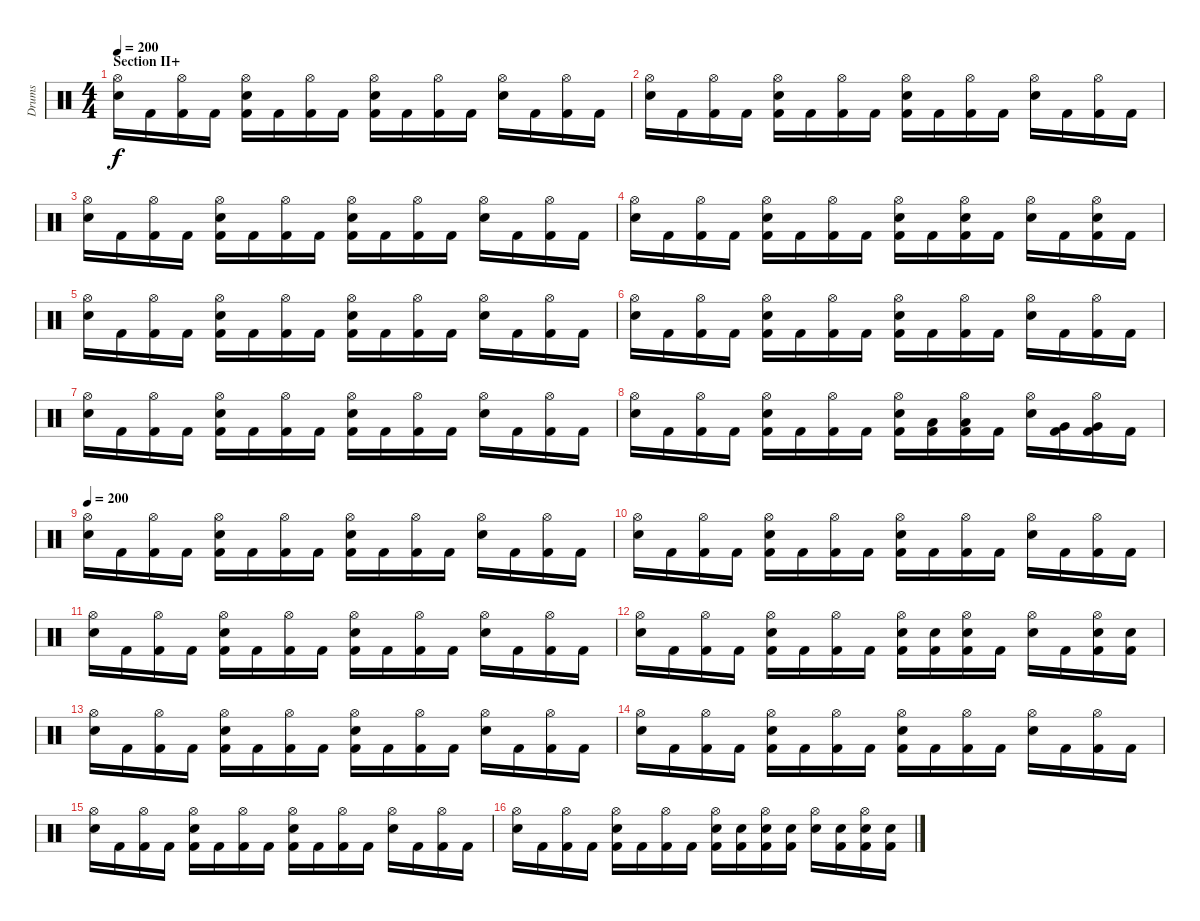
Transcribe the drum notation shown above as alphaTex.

\track ("Drums" "Drums") {instrument percussion}
\staff {score}
\articulation defaults
\ts (4 4)
\section ("" "Section II+")
\tempo 200
\clef neutral
\ks c
("Hi-Hat (open)" "Snare (hit) 2").16{dy f} "Kick (hit) 2".16 ("Hi-Hat (open)" "Kick (hit) 2").16 "Kick (hit) 2".16 ("Hi-Hat (open)" "Snare (hit) 2" "Kick (hit) 2").16 "Kick (hit) 2".16 ("Hi-Hat (open)" "Kick (hit) 2").16 "Kick (hit) 2".16 ("Hi-Hat (open)" "Snare (hit) 2" "Kick (hit) 2").16 "Kick (hit) 2".16 ("Hi-Hat (open)" "Kick (hit) 2").16 "Kick (hit) 2".16 ("Hi-Hat (open)" "Snare (hit) 2").16 "Kick (hit) 2".16 ("Hi-Hat (open)" "Kick (hit) 2").16 "Kick (hit) 2".16 |
("Hi-Hat (open)" "Snare (hit) 2").16 "Kick (hit) 2".16 ("Hi-Hat (open)" "Kick (hit) 2").16 "Kick (hit) 2".16 ("Hi-Hat (open)" "Snare (hit) 2" "Kick (hit) 2").16 "Kick (hit) 2".16 ("Hi-Hat (open)" "Kick (hit) 2").16 "Kick (hit) 2".16 ("Hi-Hat (open)" "Snare (hit) 2" "Kick (hit) 2").16 "Kick (hit) 2".16 ("Hi-Hat (open)" "Kick (hit) 2").16 "Kick (hit) 2".16 ("Hi-Hat (open)" "Snare (hit) 2").16 "Kick (hit) 2".16 ("Hi-Hat (open)" "Kick (hit) 2").16 "Kick (hit) 2".16 |
("Hi-Hat (open)" "Snare (hit) 2").16 "Kick (hit) 2".16 ("Hi-Hat (open)" "Kick (hit) 2").16 "Kick (hit) 2".16 ("Hi-Hat (open)" "Snare (hit) 2" "Kick (hit) 2").16 "Kick (hit) 2".16 ("Hi-Hat (open)" "Kick (hit) 2").16 "Kick (hit) 2".16 ("Hi-Hat (open)" "Snare (hit) 2" "Kick (hit) 2").16 "Kick (hit) 2".16 ("Hi-Hat (open)" "Kick (hit) 2").16 "Kick (hit) 2".16 ("Hi-Hat (open)" "Snare (hit) 2").16 "Kick (hit) 2".16 ("Hi-Hat (open)" "Kick (hit) 2").16 "Kick (hit) 2".16 |
("Hi-Hat (open)" "Snare (hit) 2").16 "Kick (hit) 2".16 ("Hi-Hat (open)" "Kick (hit) 2").16 "Kick (hit) 2".16 ("Hi-Hat (open)" "Snare (hit) 2" "Kick (hit) 2").16 "Kick (hit) 2".16 ("Hi-Hat (open)" "Kick (hit) 2").16 "Kick (hit) 2".16 ("Hi-Hat (open)" "Snare (hit) 2" "Kick (hit) 2").16 "Kick (hit) 2".16 ("Hi-Hat (open)" "Snare (hit) 2" "Kick (hit) 2").16 "Kick (hit) 2".16 ("Hi-Hat (open)" "Snare (hit) 2").16 "Kick (hit) 2".16 ("Hi-Hat (open)" "Snare (hit) 2" "Kick (hit) 2").16 "Kick (hit) 2".16 |
("Hi-Hat (open)" "Snare (hit) 2").16 "Kick (hit) 2".16 ("Hi-Hat (open)" "Kick (hit) 2").16 "Kick (hit) 2".16 ("Hi-Hat (open)" "Snare (hit) 2" "Kick (hit) 2").16 "Kick (hit) 2".16 ("Hi-Hat (open)" "Kick (hit) 2").16 "Kick (hit) 2".16 ("Hi-Hat (open)" "Snare (hit) 2" "Kick (hit) 2").16 "Kick (hit) 2".16 ("Hi-Hat (open)" "Kick (hit) 2").16 "Kick (hit) 2".16 ("Hi-Hat (open)" "Snare (hit) 2").16 "Kick (hit) 2".16 ("Hi-Hat (open)" "Kick (hit) 2").16 "Kick (hit) 2".16 |
("Hi-Hat (open)" "Snare (hit) 2").16 "Kick (hit) 2".16 ("Hi-Hat (open)" "Kick (hit) 2").16 "Kick (hit) 2".16 ("Hi-Hat (open)" "Snare (hit) 2" "Kick (hit) 2").16 "Kick (hit) 2".16 ("Hi-Hat (open)" "Kick (hit) 2").16 "Kick (hit) 2".16 ("Hi-Hat (open)" "Snare (hit) 2" "Kick (hit) 2").16 "Kick (hit) 2".16 ("Hi-Hat (open)" "Kick (hit) 2").16 "Kick (hit) 2".16 ("Hi-Hat (open)" "Snare (hit) 2").16 "Kick (hit) 2".16 ("Hi-Hat (open)" "Kick (hit) 2").16 "Kick (hit) 2".16 |
("Hi-Hat (open)" "Snare (hit) 2").16 "Kick (hit) 2".16 ("Hi-Hat (open)" "Kick (hit) 2").16 "Kick (hit) 2".16 ("Hi-Hat (open)" "Snare (hit) 2" "Kick (hit) 2").16 "Kick (hit) 2".16 ("Hi-Hat (open)" "Kick (hit) 2").16 "Kick (hit) 2".16 ("Hi-Hat (open)" "Snare (hit) 2" "Kick (hit) 2").16 "Kick (hit) 2".16 ("Hi-Hat (open)" "Kick (hit) 2").16 "Kick (hit) 2".16 ("Hi-Hat (open)" "Snare (hit) 2").16 "Kick (hit) 2".16 ("Hi-Hat (open)" "Kick (hit) 2").16 "Kick (hit) 2".16 |
("Hi-Hat (open)" "Snare (hit) 2").16 "Kick (hit) 2".16 ("Hi-Hat (open)" "Kick (hit) 2").16 "Kick (hit) 2".16 ("Hi-Hat (open)" "Snare (hit) 2" "Kick (hit) 2").16 "Kick (hit) 2".16 ("Hi-Hat (open)" "Kick (hit) 2").16 "Kick (hit) 2".16 ("Hi-Hat (open)" "Snare (hit) 2" "Kick (hit) 2").16 ("Low Tom (hit)" "Kick (hit) 2").16 ("Hi-Hat (open)" "Low Tom (hit)" "Kick (hit) 2").16 "Kick (hit) 2".16 ("Hi-Hat (open)" "Snare (hit) 2").16 ("Very Low Tom (hit)" "Kick (hit) 2").16 ("Hi-Hat (open)" "Very Low Tom (hit)" "Kick (hit) 2").16 "Kick (hit) 2".16 |
\tempo 200
("Hi-Hat (open)" "Snare (hit) 2").16 "Kick (hit) 2".16 ("Hi-Hat (open)" "Kick (hit) 2").16 "Kick (hit) 2".16 ("Hi-Hat (open)" "Snare (hit) 2" "Kick (hit) 2").16 "Kick (hit) 2".16 ("Hi-Hat (open)" "Kick (hit) 2").16 "Kick (hit) 2".16 ("Hi-Hat (open)" "Snare (hit) 2" "Kick (hit) 2").16 "Kick (hit) 2".16 ("Hi-Hat (open)" "Kick (hit) 2").16 "Kick (hit) 2".16 ("Hi-Hat (open)" "Snare (hit) 2").16 "Kick (hit) 2".16 ("Hi-Hat (open)" "Kick (hit) 2").16 "Kick (hit) 2".16 |
("Hi-Hat (open)" "Snare (hit) 2").16 "Kick (hit) 2".16 ("Hi-Hat (open)" "Kick (hit) 2").16 "Kick (hit) 2".16 ("Hi-Hat (open)" "Snare (hit) 2" "Kick (hit) 2").16 "Kick (hit) 2".16 ("Hi-Hat (open)" "Kick (hit) 2").16 "Kick (hit) 2".16 ("Hi-Hat (open)" "Snare (hit) 2" "Kick (hit) 2").16 "Kick (hit) 2".16 ("Hi-Hat (open)" "Kick (hit) 2").16 "Kick (hit) 2".16 ("Hi-Hat (open)" "Snare (hit) 2").16 "Kick (hit) 2".16 ("Hi-Hat (open)" "Kick (hit) 2").16 "Kick (hit) 2".16 |
("Hi-Hat (open)" "Snare (hit) 2").16 "Kick (hit) 2".16 ("Hi-Hat (open)" "Kick (hit) 2").16 "Kick (hit) 2".16 ("Hi-Hat (open)" "Snare (hit) 2" "Kick (hit) 2").16 "Kick (hit) 2".16 ("Hi-Hat (open)" "Kick (hit) 2").16 "Kick (hit) 2".16 ("Hi-Hat (open)" "Snare (hit) 2" "Kick (hit) 2").16 "Kick (hit) 2".16 ("Hi-Hat (open)" "Kick (hit) 2").16 "Kick (hit) 2".16 ("Hi-Hat (open)" "Snare (hit) 2").16 "Kick (hit) 2".16 ("Hi-Hat (open)" "Kick (hit) 2").16 "Kick (hit) 2".16 |
("Hi-Hat (open)" "Snare (hit) 2").16 "Kick (hit) 2".16 ("Hi-Hat (open)" "Kick (hit) 2").16 "Kick (hit) 2".16 ("Hi-Hat (open)" "Snare (hit) 2" "Kick (hit) 2").16 "Kick (hit) 2".16 ("Hi-Hat (open)" "Kick (hit) 2").16 "Kick (hit) 2".16 ("Hi-Hat (open)" "Snare (hit) 2" "Kick (hit) 2").16 ("Snare (hit) 2" "Kick (hit) 2").16 ("Hi-Hat (open)" "Snare (hit) 2" "Kick (hit) 2").16 "Kick (hit) 2".16 ("Hi-Hat (open)" "Snare (hit) 2").16 "Kick (hit) 2".16 ("Hi-Hat (open)" "Snare (hit) 2" "Kick (hit) 2").16 ("Snare (hit) 2" "Kick (hit) 2").16 |
("Hi-Hat (open)" "Snare (hit) 2").16 "Kick (hit) 2".16 ("Hi-Hat (open)" "Kick (hit) 2").16 "Kick (hit) 2".16 ("Hi-Hat (open)" "Snare (hit) 2" "Kick (hit) 2").16 "Kick (hit) 2".16 ("Hi-Hat (open)" "Kick (hit) 2").16 "Kick (hit) 2".16 ("Hi-Hat (open)" "Snare (hit) 2" "Kick (hit) 2").16 "Kick (hit) 2".16 ("Hi-Hat (open)" "Kick (hit) 2").16 "Kick (hit) 2".16 ("Hi-Hat (open)" "Snare (hit) 2").16 "Kick (hit) 2".16 ("Hi-Hat (open)" "Kick (hit) 2").16 "Kick (hit) 2".16 |
("Hi-Hat (open)" "Snare (hit) 2").16 "Kick (hit) 2".16 ("Hi-Hat (open)" "Kick (hit) 2").16 "Kick (hit) 2".16 ("Hi-Hat (open)" "Snare (hit) 2" "Kick (hit) 2").16 "Kick (hit) 2".16 ("Hi-Hat (open)" "Kick (hit) 2").16 "Kick (hit) 2".16 ("Hi-Hat (open)" "Snare (hit) 2" "Kick (hit) 2").16 "Kick (hit) 2".16 ("Hi-Hat (open)" "Kick (hit) 2").16 "Kick (hit) 2".16 ("Hi-Hat (open)" "Snare (hit) 2").16 "Kick (hit) 2".16 ("Hi-Hat (open)" "Kick (hit) 2").16 "Kick (hit) 2".16 |
("Hi-Hat (open)" "Snare (hit) 2").16 "Kick (hit) 2".16 ("Hi-Hat (open)" "Kick (hit) 2").16 "Kick (hit) 2".16 ("Hi-Hat (open)" "Snare (hit) 2" "Kick (hit) 2").16 "Kick (hit) 2".16 ("Hi-Hat (open)" "Kick (hit) 2").16 "Kick (hit) 2".16 ("Hi-Hat (open)" "Snare (hit) 2" "Kick (hit) 2").16 "Kick (hit) 2".16 ("Hi-Hat (open)" "Kick (hit) 2").16 "Kick (hit) 2".16 ("Hi-Hat (open)" "Snare (hit) 2").16 "Kick (hit) 2".16 ("Hi-Hat (open)" "Kick (hit) 2").16 "Kick (hit) 2".16 |
("Hi-Hat (open)" "Snare (hit) 2").16 "Kick (hit) 2".16 ("Hi-Hat (open)" "Kick (hit) 2").16 "Kick (hit) 2".16 ("Hi-Hat (open)" "Snare (hit) 2" "Kick (hit) 2").16 "Kick (hit) 2".16 ("Hi-Hat (open)" "Kick (hit) 2").16 "Kick (hit) 2".16 ("Hi-Hat (open)" "Snare (hit) 2" "Kick (hit) 2").16 ("Snare (hit) 2" "Kick (hit) 2").16 ("Hi-Hat (open)" "Snare (hit) 2" "Kick (hit) 2").16 ("Snare (hit) 2" "Kick (hit) 2").16 ("Hi-Hat (open)" "Snare (hit) 2").16 ("Snare (hit) 2" "Kick (hit) 2").16 ("Hi-Hat (open)" "Snare (hit) 2" "Kick (hit) 2").16 ("Snare (hit) 2" "Kick (hit) 2").16
